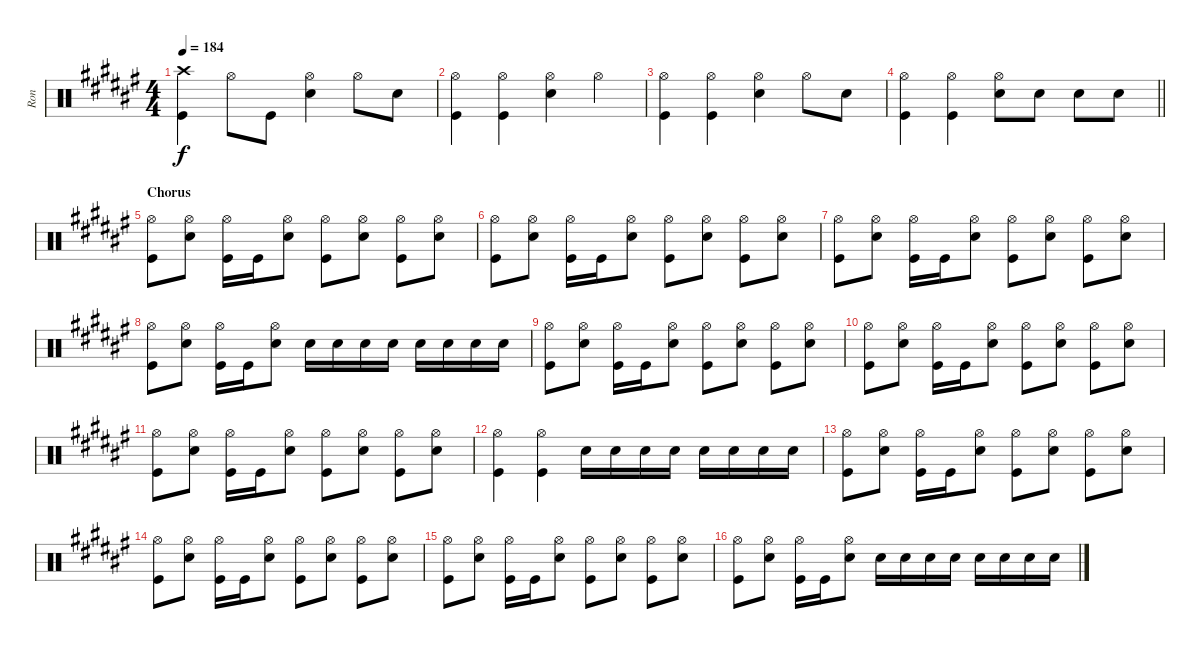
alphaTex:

\track ("Ron" "Ron") {instrument percussion}
\staff {score}
\articulation defaults
\ts (4 4)
\tempo 184
\clef neutral
\ks f#
("Kick (hit)" "Crash high (hit)").4{dy f} "Hi-Hat (open)".8 "Kick (hit)".8 ("Electric Snare (hit)" "Hi-Hat (open)").4 "Hi-Hat (open)".8 "Electric Snare (hit)".8 |
("Kick (hit)" "Hi-Hat (open)").4 ("Kick (hit)" "Hi-Hat (open)").4 ("Electric Snare (hit)" "Hi-Hat (open)").4 "Hi-Hat (open)".4 |
("Kick (hit)" "Hi-Hat (open)").4 ("Kick (hit)" "Hi-Hat (open)").4 ("Electric Snare (hit)" "Hi-Hat (open)").4 "Hi-Hat (open)".8 "Electric Snare (hit)".8 |
\barLineRight lightlight
("Kick (hit)" "Hi-Hat (open)").4 ("Kick (hit)" "Hi-Hat (open)").4 ("Electric Snare (hit)" "Hi-Hat (open)").8 "Electric Snare (hit)".8 "Electric Snare (hit)".8 "Electric Snare (hit)".8 |
\section ("" "Chorus")
("Kick (hit)" "Hi-Hat (open)").8 ("Electric Snare (hit)" "Hi-Hat (open)").8 ("Kick (hit)" "Hi-Hat (open)").16 "Kick (hit)".16 ("Electric Snare (hit)" "Hi-Hat (open)").8 ("Kick (hit)" "Hi-Hat (open)").8 ("Electric Snare (hit)" "Hi-Hat (open)").8 ("Kick (hit)" "Hi-Hat (open)").8 ("Electric Snare (hit)" "Hi-Hat (open)").8 |
("Kick (hit)" "Hi-Hat (open)").8 ("Electric Snare (hit)" "Hi-Hat (open)").8 ("Kick (hit)" "Hi-Hat (open)").16 "Kick (hit)".16 ("Electric Snare (hit)" "Hi-Hat (open)").8 ("Kick (hit)" "Hi-Hat (open)").8 ("Electric Snare (hit)" "Hi-Hat (open)").8 ("Kick (hit)" "Hi-Hat (open)").8 ("Electric Snare (hit)" "Hi-Hat (open)").8 |
("Kick (hit)" "Hi-Hat (open)").8 ("Electric Snare (hit)" "Hi-Hat (open)").8 ("Kick (hit)" "Hi-Hat (open)").16 "Kick (hit)".16 ("Electric Snare (hit)" "Hi-Hat (open)").8 ("Kick (hit)" "Hi-Hat (open)").8 ("Electric Snare (hit)" "Hi-Hat (open)").8 ("Kick (hit)" "Hi-Hat (open)").8 ("Electric Snare (hit)" "Hi-Hat (open)").8 |
("Kick (hit)" "Hi-Hat (open)").8 ("Electric Snare (hit)" "Hi-Hat (open)").8 ("Kick (hit)" "Hi-Hat (open)").16 "Kick (hit)".16 ("Electric Snare (hit)" "Hi-Hat (open)").8 "Electric Snare (hit)".16 "Electric Snare (hit)".16 "Electric Snare (hit)".16 "Electric Snare (hit)".16 "Electric Snare (hit)".16 "Electric Snare (hit)".16 "Electric Snare (hit)".16 "Electric Snare (hit)".16 |
("Kick (hit)" "Hi-Hat (open)").8 ("Electric Snare (hit)" "Hi-Hat (open)").8 ("Kick (hit)" "Hi-Hat (open)").16 "Kick (hit)".16 ("Electric Snare (hit)" "Hi-Hat (open)").8 ("Kick (hit)" "Hi-Hat (open)").8 ("Electric Snare (hit)" "Hi-Hat (open)").8 ("Kick (hit)" "Hi-Hat (open)").8 ("Electric Snare (hit)" "Hi-Hat (open)").8 |
("Kick (hit)" "Hi-Hat (open)").8 ("Electric Snare (hit)" "Hi-Hat (open)").8 ("Kick (hit)" "Hi-Hat (open)").16 "Kick (hit)".16 ("Electric Snare (hit)" "Hi-Hat (open)").8 ("Kick (hit)" "Hi-Hat (open)").8 ("Electric Snare (hit)" "Hi-Hat (open)").8 ("Kick (hit)" "Hi-Hat (open)").8 ("Electric Snare (hit)" "Hi-Hat (open)").8 |
("Kick (hit)" "Hi-Hat (open)").8 ("Electric Snare (hit)" "Hi-Hat (open)").8 ("Kick (hit)" "Hi-Hat (open)").16 "Kick (hit)".16 ("Electric Snare (hit)" "Hi-Hat (open)").8 ("Kick (hit)" "Hi-Hat (open)").8 ("Electric Snare (hit)" "Hi-Hat (open)").8 ("Kick (hit)" "Hi-Hat (open)").8 ("Electric Snare (hit)" "Hi-Hat (open)").8 |
("Kick (hit)" "Hi-Hat (open)").4 ("Kick (hit)" "Hi-Hat (open)").4 "Electric Snare (hit)".16 "Electric Snare (hit)".16 "Electric Snare (hit)".16 "Electric Snare (hit)".16 "Electric Snare (hit)".16 "Electric Snare (hit)".16 "Electric Snare (hit)".16 "Electric Snare (hit)".16 |
("Kick (hit)" "Hi-Hat (open)").8 ("Electric Snare (hit)" "Hi-Hat (open)").8 ("Kick (hit)" "Hi-Hat (open)").16 "Kick (hit)".16 ("Electric Snare (hit)" "Hi-Hat (open)").8 ("Kick (hit)" "Hi-Hat (open)").8 ("Electric Snare (hit)" "Hi-Hat (open)").8 ("Kick (hit)" "Hi-Hat (open)").8 ("Electric Snare (hit)" "Hi-Hat (open)").8 |
("Kick (hit)" "Hi-Hat (open)").8 ("Electric Snare (hit)" "Hi-Hat (open)").8 ("Kick (hit)" "Hi-Hat (open)").16 "Kick (hit)".16 ("Electric Snare (hit)" "Hi-Hat (open)").8 ("Kick (hit)" "Hi-Hat (open)").8 ("Electric Snare (hit)" "Hi-Hat (open)").8 ("Kick (hit)" "Hi-Hat (open)").8 ("Electric Snare (hit)" "Hi-Hat (open)").8 |
("Kick (hit)" "Hi-Hat (open)").8 ("Electric Snare (hit)" "Hi-Hat (open)").8 ("Kick (hit)" "Hi-Hat (open)").16 "Kick (hit)".16 ("Electric Snare (hit)" "Hi-Hat (open)").8 ("Kick (hit)" "Hi-Hat (open)").8 ("Electric Snare (hit)" "Hi-Hat (open)").8 ("Kick (hit)" "Hi-Hat (open)").8 ("Electric Snare (hit)" "Hi-Hat (open)").8 |
("Kick (hit)" "Hi-Hat (open)").8 ("Electric Snare (hit)" "Hi-Hat (open)").8 ("Kick (hit)" "Hi-Hat (open)").16 "Kick (hit)".16 ("Electric Snare (hit)" "Hi-Hat (open)").8 "Electric Snare (hit)".16 "Electric Snare (hit)".16 "Electric Snare (hit)".16 "Electric Snare (hit)".16 "Electric Snare (hit)".16 "Electric Snare (hit)".16 "Electric Snare (hit)".16 "Electric Snare (hit)".16
